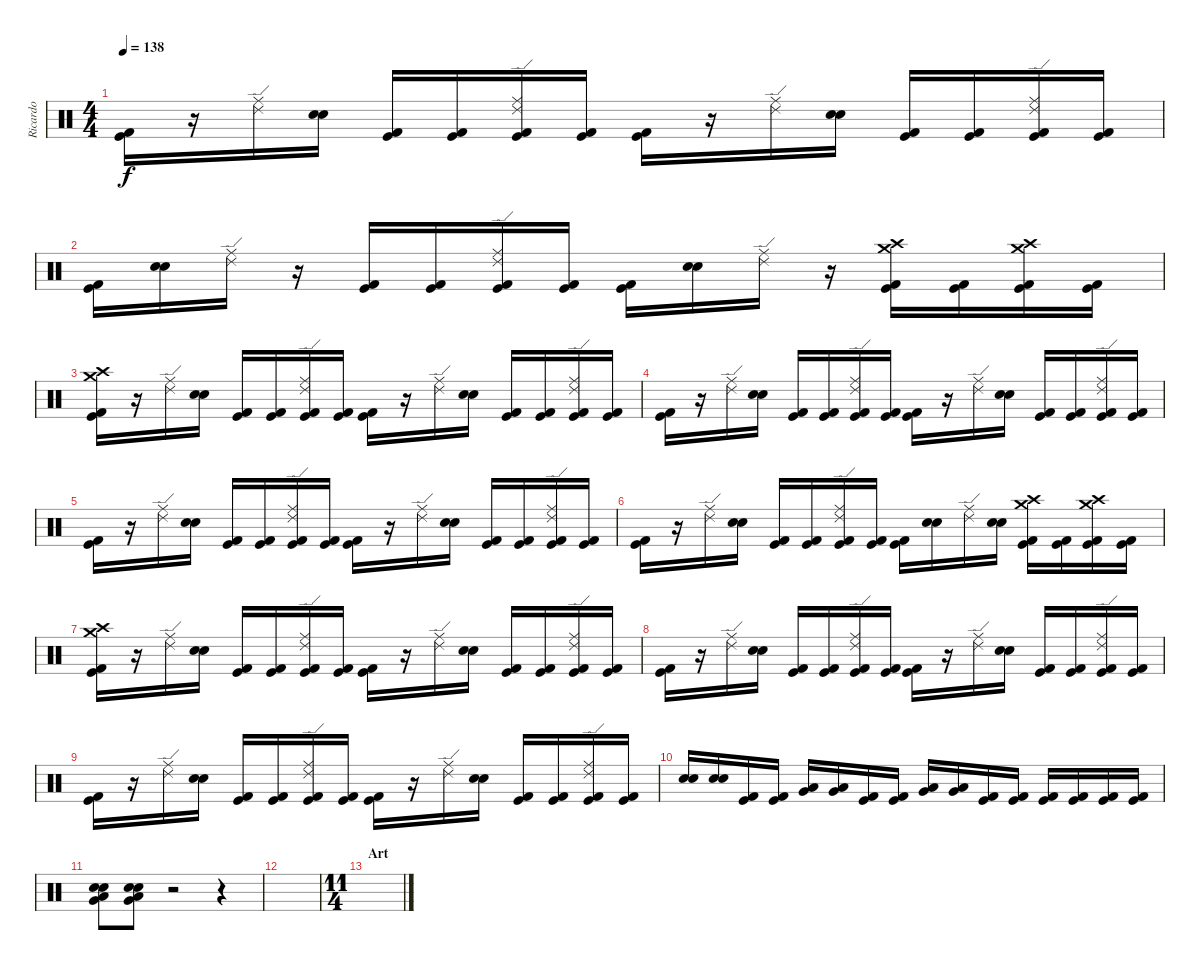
\track ("Ricardo" "Ricardo") {instrument percussion}
\staff {score}
\articulation defaults
\ts (4 4)
\tempo 138
\clef neutral
\ks c
("Kick (hit) 2" "Kick (hit)").16{dy f} r.16 ("Ride (middle)" "Ride (edge) 2").16 ("Electric Snare (hit)" "Snare (hit) 2").16 ("Kick (hit) 2" "Kick (hit)").16 ("Kick (hit) 2" "Kick (hit)").16 ("Ride (middle)" "Ride (edge) 2" "Kick (hit) 2" "Kick (hit)").16 ("Kick (hit) 2" "Kick (hit)").16 ("Kick (hit) 2" "Kick (hit)").16 r.16 ("Ride (middle)" "Ride (edge) 2").16 ("Electric Snare (hit)" "Snare (hit) 2").16 ("Kick (hit) 2" "Kick (hit)").16 ("Kick (hit) 2" "Kick (hit)").16 ("Ride (middle)" "Ride (edge) 2" "Kick (hit) 2" "Kick (hit)").16 ("Kick (hit) 2" "Kick (hit)").16 |
("Kick (hit) 2" "Kick (hit)").16 ("Electric Snare (hit)" "Snare (hit) 2").16 ("Ride (middle)" "Ride (edge) 2").16 r.16 ("Kick (hit) 2" "Kick (hit)").16 ("Kick (hit) 2" "Kick (hit)").16 ("Ride (middle)" "Ride (edge) 2" "Kick (hit) 2" "Kick (hit)").16 ("Kick (hit) 2" "Kick (hit)").16 ("Kick (hit) 2" "Kick (hit)").16 ("Electric Snare (hit)" "Snare (hit) 2").16 ("Ride (middle)" "Ride (edge) 2").16 r.16 ("Crash medium (hit)" "Crash high (hit)" "Kick (hit) 2" "Kick (hit)").16 ("Kick (hit) 2" "Kick (hit)").16 ("Crash medium (hit)" "Crash high (hit)" "Kick (hit) 2" "Kick (hit)").16 ("Kick (hit) 2" "Kick (hit)").16 |
("Crash high (hit)" "Crash medium (hit)" "Kick (hit) 2" "Kick (hit)").16 r.16 ("Ride (middle)" "Ride (edge) 2").16 ("Electric Snare (hit)" "Snare (hit) 2").16 ("Kick (hit) 2" "Kick (hit)").16 ("Kick (hit) 2" "Kick (hit)").16 ("Ride (middle)" "Ride (edge) 2" "Kick (hit) 2" "Kick (hit)").16 ("Kick (hit) 2" "Kick (hit)").16 ("Kick (hit) 2" "Kick (hit)").16 r.16 ("Ride (middle)" "Ride (edge) 2").16 ("Electric Snare (hit)" "Snare (hit) 2").16 ("Kick (hit) 2" "Kick (hit)").16 ("Kick (hit) 2" "Kick (hit)").16 ("Ride (middle)" "Ride (edge) 2" "Kick (hit) 2" "Kick (hit)").16 ("Kick (hit) 2" "Kick (hit)").16 |
("Kick (hit) 2" "Kick (hit)").16 r.16 ("Ride (middle)" "Ride (edge) 2").16 ("Electric Snare (hit)" "Snare (hit) 2").16 ("Kick (hit) 2" "Kick (hit)").16 ("Kick (hit) 2" "Kick (hit)").16 ("Ride (middle)" "Ride (edge) 2" "Kick (hit) 2" "Kick (hit)").16 ("Kick (hit) 2" "Kick (hit)").16 ("Kick (hit) 2" "Kick (hit)").16 r.16 ("Ride (middle)" "Ride (edge) 2").16 ("Electric Snare (hit)" "Snare (hit) 2").16 ("Kick (hit) 2" "Kick (hit)").16 ("Kick (hit) 2" "Kick (hit)").16 ("Ride (middle)" "Ride (edge) 2" "Kick (hit) 2" "Kick (hit)").16 ("Kick (hit) 2" "Kick (hit)").16 |
("Kick (hit) 2" "Kick (hit)").16 r.16 ("Ride (middle)" "Ride (edge) 2").16 ("Electric Snare (hit)" "Snare (hit) 2").16 ("Kick (hit) 2" "Kick (hit)").16 ("Kick (hit) 2" "Kick (hit)").16 ("Ride (middle)" "Ride (edge) 2" "Kick (hit) 2" "Kick (hit)").16 ("Kick (hit) 2" "Kick (hit)").16 ("Kick (hit) 2" "Kick (hit)").16 r.16 ("Ride (middle)" "Ride (edge) 2").16 ("Electric Snare (hit)" "Snare (hit) 2").16 ("Kick (hit) 2" "Kick (hit)").16 ("Kick (hit) 2" "Kick (hit)").16 ("Ride (middle)" "Ride (edge) 2" "Kick (hit) 2" "Kick (hit)").16 ("Kick (hit) 2" "Kick (hit)").16 |
("Kick (hit) 2" "Kick (hit)").16 r.16 ("Ride (middle)" "Ride (edge) 2").16 ("Electric Snare (hit)" "Snare (hit) 2").16 ("Kick (hit) 2" "Kick (hit)").16 ("Kick (hit) 2" "Kick (hit)").16 ("Ride (middle)" "Ride (edge) 2" "Kick (hit) 2" "Kick (hit)").16 ("Kick (hit) 2" "Kick (hit)").16 ("Kick (hit) 2" "Kick (hit)").16 ("Electric Snare (hit)" "Snare (hit) 2").16 ("Ride (middle)" "Ride (edge) 2").16 ("Electric Snare (hit)" "Snare (hit) 2").16 ("Crash high (hit)" "Crash medium (hit)" "Kick (hit) 2" "Kick (hit)").16 ("Kick (hit) 2" "Kick (hit)").16 ("Crash medium (hit)" "Crash high (hit)" "Kick (hit) 2" "Kick (hit)").16 ("Kick (hit) 2" "Kick (hit)").16 |
("Crash high (hit)" "Crash medium (hit)" "Kick (hit) 2" "Kick (hit)").16 r.16 ("Ride (middle)" "Ride (edge) 2").16 ("Electric Snare (hit)" "Snare (hit) 2").16 ("Kick (hit) 2" "Kick (hit)").16 ("Kick (hit) 2" "Kick (hit)").16 ("Ride (middle)" "Ride (edge) 2" "Kick (hit) 2" "Kick (hit)").16 ("Kick (hit) 2" "Kick (hit)").16 ("Kick (hit) 2" "Kick (hit)").16 r.16 ("Ride (middle)" "Ride (edge) 2").16 ("Electric Snare (hit)" "Snare (hit) 2").16 ("Kick (hit) 2" "Kick (hit)").16 ("Kick (hit) 2" "Kick (hit)").16 ("Ride (middle)" "Ride (edge) 2" "Kick (hit) 2" "Kick (hit)").16 ("Kick (hit) 2" "Kick (hit)").16 |
("Kick (hit) 2" "Kick (hit)").16 r.16 ("Ride (middle)" "Ride (edge) 2").16 ("Electric Snare (hit)" "Snare (hit) 2").16 ("Kick (hit) 2" "Kick (hit)").16 ("Kick (hit) 2" "Kick (hit)").16 ("Ride (middle)" "Ride (edge) 2" "Kick (hit) 2" "Kick (hit)").16 ("Kick (hit) 2" "Kick (hit)").16 ("Kick (hit) 2" "Kick (hit)").16 r.16 ("Ride (middle)" "Ride (edge) 2").16 ("Electric Snare (hit)" "Snare (hit) 2").16 ("Kick (hit) 2" "Kick (hit)").16 ("Kick (hit) 2" "Kick (hit)").16 ("Ride (middle)" "Ride (edge) 2" "Kick (hit) 2" "Kick (hit)").16 ("Kick (hit) 2" "Kick (hit)").16 |
("Kick (hit) 2" "Kick (hit)").16 r.16 ("Ride (middle)" "Ride (edge) 2").16 ("Electric Snare (hit)" "Snare (hit) 2").16 ("Kick (hit) 2" "Kick (hit)").16 ("Kick (hit) 2" "Kick (hit)").16 ("Ride (middle)" "Ride (edge) 2" "Kick (hit) 2" "Kick (hit)").16 ("Kick (hit) 2" "Kick (hit)").16 ("Kick (hit) 2" "Kick (hit)").16 r.16 ("Ride (middle)" "Ride (edge) 2").16 ("Electric Snare (hit)" "Snare (hit) 2").16 ("Kick (hit) 2" "Kick (hit)").16 ("Kick (hit) 2" "Kick (hit)").16 ("Ride (middle)" "Ride (edge) 2" "Kick (hit) 2" "Kick (hit)").16 ("Kick (hit) 2" "Kick (hit)").16 |
("Electric Snare (hit)" "Snare (hit) 2").16 ("Electric Snare (hit)" "Snare (hit) 2").16 ("Kick (hit) 2" "Kick (hit)").16 ("Kick (hit) 2" "Kick (hit)").16 ("Very Low Tom (hit)" "Low Tom (hit)").16 ("Very Low Tom (hit)" "Low Tom (hit)").16 ("Kick (hit) 2" "Kick (hit)").16 ("Kick (hit) 2" "Kick (hit)").16 ("Very Low Tom (hit)" "Low Floor Tom (hit)").16 ("Low Floor Tom (hit)" "Very Low Tom (hit)").16 ("Kick (hit) 2" "Kick (hit)").16 ("Kick (hit) 2" "Kick (hit)").16 ("Kick (hit) 2" "Kick (hit)").16 ("Kick (hit) 2" "Kick (hit)").16 ("Kick (hit) 2" "Kick (hit)").16 ("Kick (hit) 2" "Kick (hit)").16 |
("Low Tom (hit)" "Very Low Tom (hit)" "Electric Snare (hit)" "Snare (hit) 2").8 ("Low Tom (hit)" "Very Low Tom (hit)" "Electric Snare (hit)" "Snare (hit) 2").8 r.2 r.4 |
|
\ts (11 4)
\section ("" "Art")
